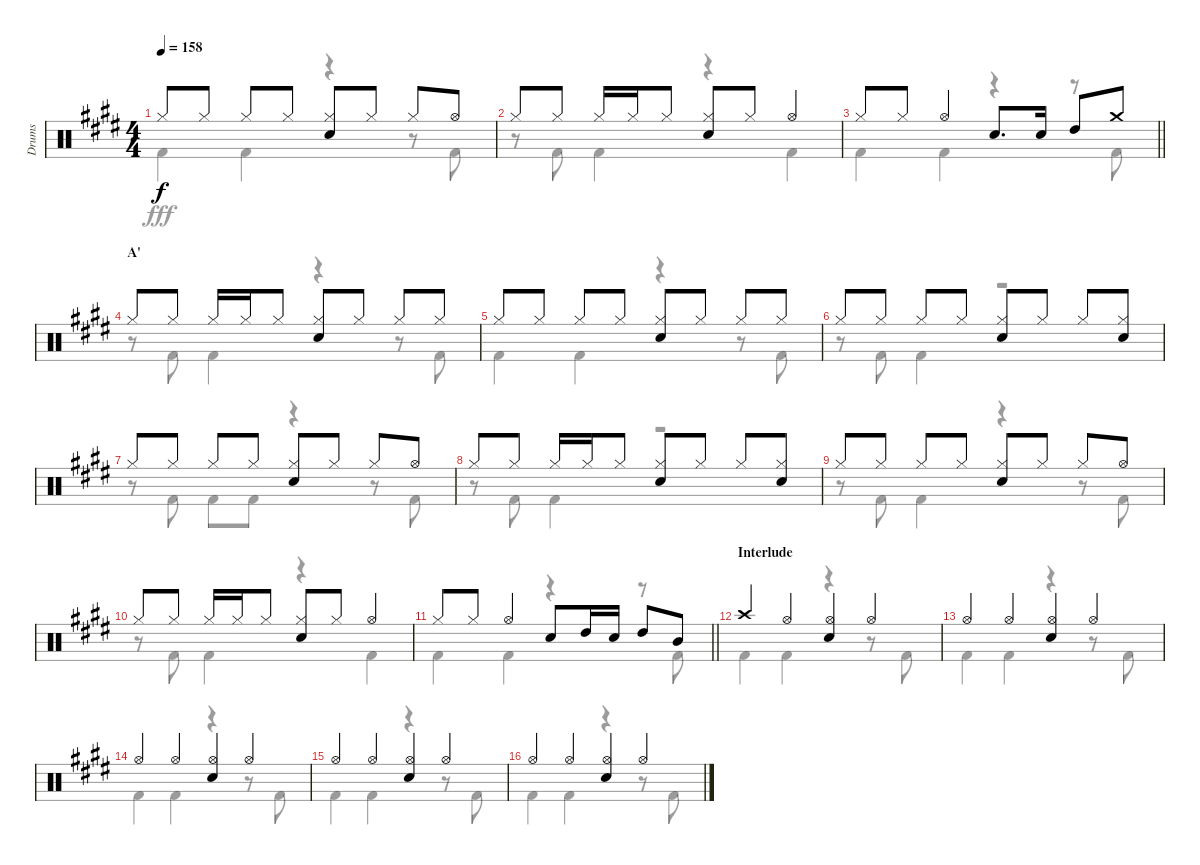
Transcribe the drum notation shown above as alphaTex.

\track ("Drums" "Drums") {instrument percussion}
\staff {score}
\articulation defaults
\voice
\ts (4 4)
\tempo 158
\clef neutral
\ks e "Hi-Hat (closed)".8{dy f} "Hi-Hat (closed)".8 "Hi-Hat (closed)".8 "Hi-Hat (closed)".8
("Hi-Hat (closed)" "Snare (hit) 2").8 "Hi-Hat (closed)".8 "Hi-Hat (closed)".8 "Hi-Hat (open)".8 |
"Hi-Hat (closed)".8 "Hi-Hat (closed)".8 "Hi-Hat (closed)".16 "Hi-Hat (closed)".16 "Hi-Hat (closed)".8 ("Hi-Hat (closed)" "Snare (hit) 2").8 "Hi-Hat (closed)".8 "Hi-Hat (open)".4 |
\barLineRight lightlight "Hi-Hat (closed)".8 "Hi-Hat (closed)".8 "Hi-Hat (open)".4 "Snare (hit) 2".8{d} "Snare (hit) 2".16 "High Tom (hit)".8 "Crash medium (hit)".8
|
\section ("" "A'")
"Hi-Hat (closed)".8 "Hi-Hat (closed)".8 "Hi-Hat (closed)".16 "Hi-Hat (closed)".16 "Hi-Hat (closed)".8 ("Hi-Hat (closed)" "Snare (hit) 2").8 "Hi-Hat (closed)".8 "Hi-Hat (closed)".8 "Hi-Hat (closed)".8 |
"Hi-Hat (closed)".8 "Hi-Hat (closed)".8 "Hi-Hat (closed)".8 "Hi-Hat (closed)".8 ("Hi-Hat (closed)" "Snare (hit) 2").8 "Hi-Hat (closed)".8 "Hi-Hat (closed)".8 "Hi-Hat (closed)".8 |
"Hi-Hat (closed)".8 "Hi-Hat (closed)".8 "Hi-Hat (closed)".8 "Hi-Hat (closed)".8 ("Hi-Hat (closed)" "Snare (hit) 2").8 "Hi-Hat (closed)".8 "Hi-Hat (closed)".8 ("Hi-Hat (closed)" "Snare (hit) 2").8 |
"Hi-Hat (closed)".8 "Hi-Hat (closed)".8 "Hi-Hat (closed)".8 "Hi-Hat (closed)".8 ("Hi-Hat (closed)" "Snare (hit) 2").8 "Hi-Hat (closed)".8 "Hi-Hat (closed)".8 "Hi-Hat (open)".8 |
"Hi-Hat (closed)".8 "Hi-Hat (closed)".8 "Hi-Hat (closed)".16 "Hi-Hat (closed)".16 "Hi-Hat (closed)".8 ("Hi-Hat (closed)" "Snare (hit) 2").8 "Hi-Hat (closed)".8 "Hi-Hat (closed)".8 ("Hi-Hat (closed)" "Snare (hit) 2").8 |
"Hi-Hat (closed)".8 "Hi-Hat (closed)".8 "Hi-Hat (closed)".8 "Hi-Hat (closed)".8 ("Hi-Hat (closed)" "Snare (hit) 2").8 "Hi-Hat (closed)".8 "Hi-Hat (closed)".8 "Hi-Hat (open)".8 |
"Hi-Hat (closed)".8 "Hi-Hat (closed)".8 "Hi-Hat (closed)".16 "Hi-Hat (closed)".16 "Hi-Hat (closed)".8 ("Hi-Hat (closed)" "Snare (hit) 2").8 "Hi-Hat (closed)".8 "Hi-Hat (open)".4 |
\barLineRight lightlight "Hi-Hat (closed)".8 "Hi-Hat (closed)".8 "Hi-Hat (open)".4 "Snare (hit) 2".8 "High Tom (hit)".16 "Snare (hit) 2".16 "High Tom (hit)".8 "Mid Tom (hit)".8
|
\section ("" "Interlude")
"Crash high (hit)".4 "Hi-Hat (open)".4 ("Hi-Hat (open)" "Snare (hit) 2").4 "Hi-Hat (open)".4 |
"Hi-Hat (open)".4 "Hi-Hat (open)".4 ("Hi-Hat (open)" "Snare (hit) 2").4 "Hi-Hat (open)".4 |
"Hi-Hat (open)".4 "Hi-Hat (open)".4 ("Hi-Hat (open)" "Snare (hit) 2").4 "Hi-Hat (open)".4 |
"Hi-Hat (open)".4 "Hi-Hat (open)".4 ("Hi-Hat (open)" "Snare (hit) 2").4 "Hi-Hat (open)".4 |
"Hi-Hat (open)".4 "Hi-Hat (open)".4 ("Hi-Hat (open)" "Snare (hit) 2").4 "Hi-Hat (open)".4
\voice
\clef neutral
\ottava regular
\simile none
\ks e "Kick (hit) 2".4{dy fff} "Kick (hit) 2".4
r.4 r.8 "Kick (hit) 2".8 |
r.8 "Kick (hit) 2".8 "Kick (hit) 2".4 r.4 "Kick (hit) 2".4 |
\barLineRight lightlight "Kick (hit) 2".4 "Kick (hit) 2".4
r.4 r.8 "Kick (hit) 2".8 |
r.8 "Kick (hit) 2".8 "Kick (hit) 2".4 r.4 r.8 "Kick (hit) 2".8 |
"Kick (hit) 2".4 "Kick (hit) 2".4 r.4 r.8 "Kick (hit) 2".8 |
r.8 "Kick (hit) 2".8 "Kick (hit) 2".4 r.2 |
r.8 "Kick (hit) 2".8 "Kick (hit) 2".8 "Kick (hit) 2".8 r.4 r.8 "Kick (hit) 2".8 |
r.8 "Kick (hit) 2".8 "Kick (hit) 2".4 r.2 |
r.8 "Kick (hit) 2".8 "Kick (hit) 2".4 r.4 r.8 "Kick (hit) 2".8 |
r.8 "Kick (hit) 2".8 "Kick (hit) 2".4 r.4 "Kick (hit) 2".4 |
\barLineRight lightlight "Kick (hit) 2".4 "Kick (hit) 2".4
r.4 r.8 "Kick (hit) 2".8 |
"Kick (hit) 2".4 "Kick (hit) 2".4 r.4 r.8 "Kick (hit) 2".8 |
"Kick (hit) 2".4 "Kick (hit) 2".4 r.4 r.8 "Kick (hit) 2".8 |
"Kick (hit) 2".4 "Kick (hit) 2".4 r.4 r.8 "Kick (hit) 2".8 |
"Kick (hit) 2".4 "Kick (hit) 2".4 r.4 r.8 "Kick (hit) 2".8 |
"Kick (hit) 2".4 "Kick (hit) 2".4 r.4 r.8 "Kick (hit) 2".8
